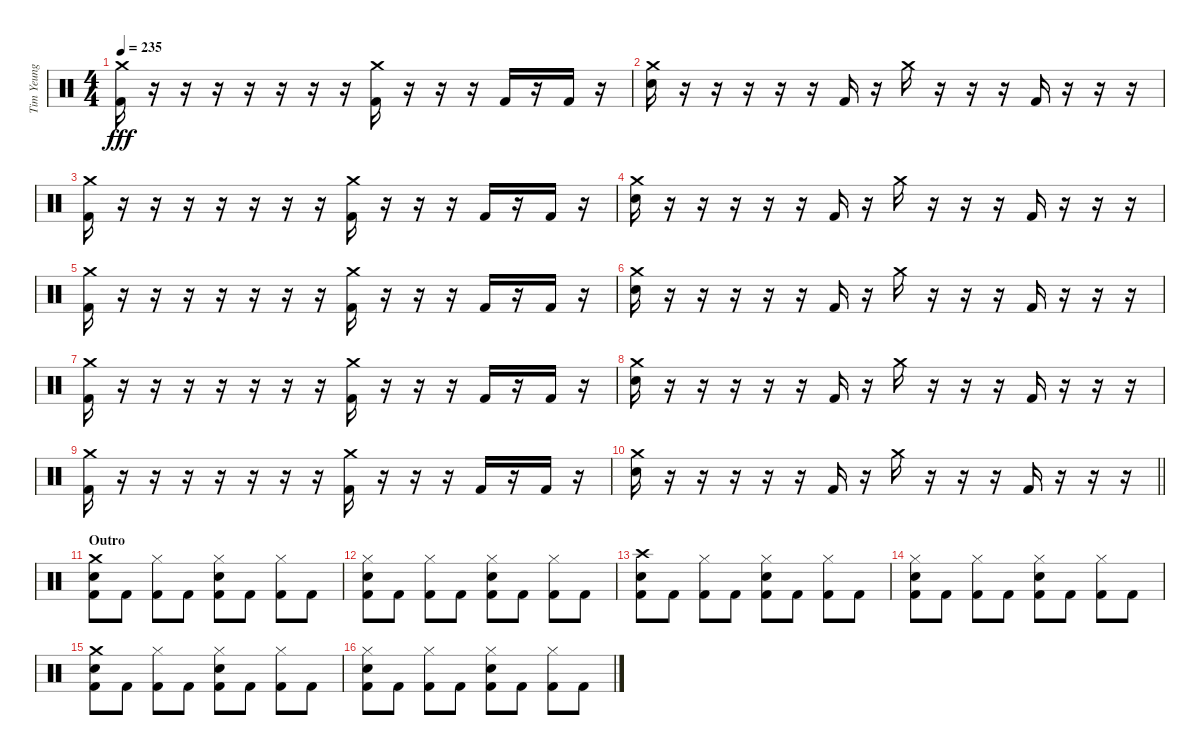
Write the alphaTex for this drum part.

\track ("Tim Yeung" "Tim Yeung") {instrument percussion}
\staff {score}
\articulation defaults
\ts (4 4)
\tempo 235
\clef neutral
\ks c
("Crash medium (hit)" "Kick (hit) 2").16{dy fff} r.16 r.16 r.16 r.16 r.16 r.16 r.16 ("Crash medium (hit)" "Kick (hit) 2").16 r.16 r.16 r.16 "Kick (hit) 2".16 r.16 "Kick (hit) 2".16 r.16 |
("Crash medium (hit)" "Electric Snare (hit)").16 r.16 r.16 r.16 r.16 r.16 "Kick (hit) 2".16 r.16 "Crash medium (hit)".16 r.16 r.16 r.16 "Kick (hit) 2".16 r.16 r.16 r.16 |
("Crash medium (hit)" "Kick (hit) 2").16 r.16 r.16 r.16 r.16 r.16 r.16 r.16 ("Crash medium (hit)" "Kick (hit) 2").16 r.16 r.16 r.16 "Kick (hit) 2".16 r.16 "Kick (hit) 2".16 r.16 |
("Crash medium (hit)" "Electric Snare (hit)").16 r.16 r.16 r.16 r.16 r.16 "Kick (hit) 2".16 r.16 "Crash medium (hit)".16 r.16 r.16 r.16 "Kick (hit) 2".16 r.16 r.16 r.16 |
("Crash medium (hit)" "Kick (hit) 2").16 r.16 r.16 r.16 r.16 r.16 r.16 r.16 ("Crash medium (hit)" "Kick (hit) 2").16 r.16 r.16 r.16 "Kick (hit) 2".16 r.16 "Kick (hit) 2".16 r.16 |
("Crash medium (hit)" "Electric Snare (hit)").16 r.16 r.16 r.16 r.16 r.16 "Kick (hit) 2".16 r.16 "Crash medium (hit)".16 r.16 r.16 r.16 "Kick (hit) 2".16 r.16 r.16 r.16 |
("Crash medium (hit)" "Kick (hit) 2").16 r.16 r.16 r.16 r.16 r.16 r.16 r.16 ("Crash medium (hit)" "Kick (hit) 2").16 r.16 r.16 r.16 "Kick (hit) 2".16 r.16 "Kick (hit) 2".16 r.16 |
("Crash medium (hit)" "Electric Snare (hit)").16 r.16 r.16 r.16 r.16 r.16 "Kick (hit) 2".16 r.16 "Crash medium (hit)".16 r.16 r.16 r.16 "Kick (hit) 2".16 r.16 r.16 r.16 |
("Crash medium (hit)" "Kick (hit) 2").16 r.16 r.16 r.16 r.16 r.16 r.16 r.16 ("Crash medium (hit)" "Kick (hit) 2").16 r.16 r.16 r.16 "Kick (hit) 2".16 r.16 "Kick (hit) 2".16 r.16 |
\barLineRight lightlight
("Crash medium (hit)" "Electric Snare (hit)").16 r.16 r.16 r.16 r.16 r.16 "Kick (hit) 2".16 r.16 "Crash medium (hit)".16 r.16 r.16 r.16 "Kick (hit) 2".16 r.16 r.16 r.16 |
\section ("" "Outro")
("Crash medium (hit)" "Electric Snare (hit)" "Kick (hit) 2").8 "Kick (hit) 2".8 ("Hi-Hat (closed)" "Kick (hit) 2").8 "Kick (hit) 2".8 ("Hi-Hat (closed)" "Electric Snare (hit)" "Kick (hit) 2").8 "Kick (hit) 2".8 ("Hi-Hat (closed)" "Kick (hit) 2").8 "Kick (hit) 2".8 |
("Hi-Hat (closed)" "Electric Snare (hit)" "Kick (hit) 2").8 "Kick (hit) 2".8 ("Hi-Hat (closed)" "Kick (hit) 2").8 "Kick (hit) 2".8 ("Hi-Hat (closed)" "Electric Snare (hit)" "Kick (hit) 2").8 "Kick (hit) 2".8 ("Hi-Hat (closed)" "Kick (hit) 2").8 "Kick (hit) 2".8 |
("Crash high (hit)" "Electric Snare (hit)" "Kick (hit) 2").8 "Kick (hit) 2".8 ("Hi-Hat (closed)" "Kick (hit) 2").8 "Kick (hit) 2".8 ("Hi-Hat (closed)" "Electric Snare (hit)" "Kick (hit) 2").8 "Kick (hit) 2".8 ("Hi-Hat (closed)" "Kick (hit) 2").8 "Kick (hit) 2".8 |
("Hi-Hat (closed)" "Electric Snare (hit)" "Kick (hit) 2").8 "Kick (hit) 2".8 ("Hi-Hat (closed)" "Kick (hit) 2").8 "Kick (hit) 2".8 ("Hi-Hat (closed)" "Electric Snare (hit)" "Kick (hit) 2").8 "Kick (hit) 2".8 ("Hi-Hat (closed)" "Kick (hit) 2").8 "Kick (hit) 2".8 |
("Crash medium (hit)" "Electric Snare (hit)" "Kick (hit) 2").8 "Kick (hit) 2".8 ("Hi-Hat (closed)" "Kick (hit) 2").8 "Kick (hit) 2".8 ("Hi-Hat (closed)" "Electric Snare (hit)" "Kick (hit) 2").8 "Kick (hit) 2".8 ("Hi-Hat (closed)" "Kick (hit) 2").8 "Kick (hit) 2".8 |
("Hi-Hat (closed)" "Electric Snare (hit)" "Kick (hit) 2").8 "Kick (hit) 2".8 ("Hi-Hat (closed)" "Kick (hit) 2").8 "Kick (hit) 2".8 ("Hi-Hat (closed)" "Electric Snare (hit)" "Kick (hit) 2").8 "Kick (hit) 2".8 ("Hi-Hat (closed)" "Kick (hit) 2").8 "Kick (hit) 2".8
